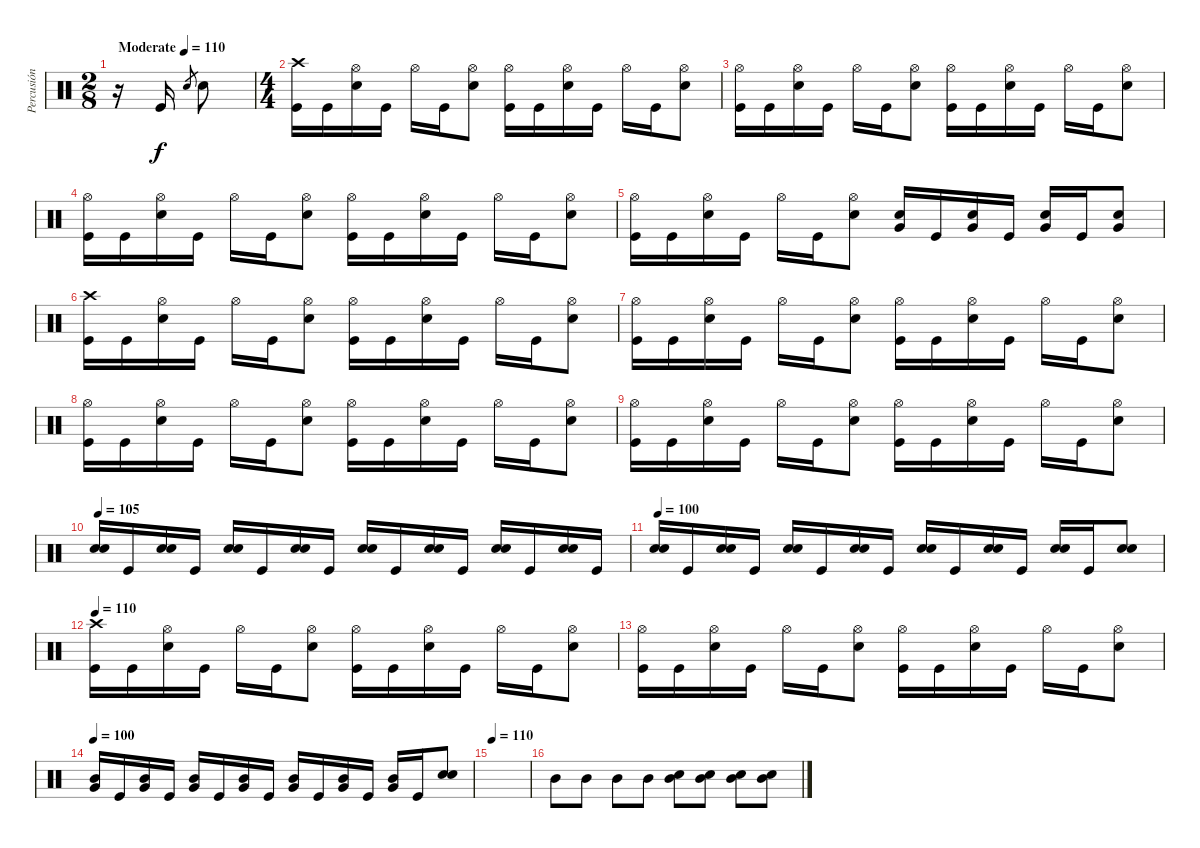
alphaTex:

\track ("Percusión" "Percusión") {instrument percussion}
\staff {score}
\articulation defaults
\ts (2 8)
\tempo (110 "Moderate")
\clef neutral
\ks c
r.16{dy f} "Kick (hit)".16 "Snare (hit) 2".8{gr} "Snare (hit) 2".8 |
\ts (4 4)
("Crash high (hit)" "Kick (hit)").16 "Kick (hit)".16 ("Hi-Hat (open)" "Snare (hit) 2").16 "Kick (hit)".16 "Hi-Hat (open)".16 "Kick (hit)".16 ("Hi-Hat (open)" "Snare (hit) 2").8 ("Hi-Hat (open)" "Kick (hit)").16 "Kick (hit)".16 ("Hi-Hat (open)" "Snare (hit) 2").16 "Kick (hit)".16 "Hi-Hat (open)".16 "Kick (hit)".16 ("Hi-Hat (open)" "Snare (hit) 2").8 |
("Hi-Hat (open)" "Kick (hit)").16 "Kick (hit)".16 ("Hi-Hat (open)" "Snare (hit) 2").16 "Kick (hit)".16 "Hi-Hat (open)".16 "Kick (hit)".16 ("Hi-Hat (open)" "Snare (hit) 2").8 ("Hi-Hat (open)" "Kick (hit)").16 "Kick (hit)".16 ("Hi-Hat (open)" "Snare (hit) 2").16 "Kick (hit)".16 "Hi-Hat (open)".16 "Kick (hit)".16 ("Hi-Hat (open)" "Snare (hit) 2").8 |
("Hi-Hat (open)" "Kick (hit)").16 "Kick (hit)".16 ("Hi-Hat (open)" "Snare (hit) 2").16 "Kick (hit)".16 "Hi-Hat (open)".16 "Kick (hit)".16 ("Hi-Hat (open)" "Snare (hit) 2").8 ("Hi-Hat (open)" "Kick (hit)").16 "Kick (hit)".16 ("Hi-Hat (open)" "Snare (hit) 2").16 "Kick (hit)".16 "Hi-Hat (open)".16 "Kick (hit)".16 ("Hi-Hat (open)" "Snare (hit) 2").8 |
("Hi-Hat (open)" "Kick (hit)").16 "Kick (hit)".16 ("Hi-Hat (open)" "Snare (hit) 2").16 "Kick (hit)".16 "Hi-Hat (open)".16 "Kick (hit)".16 ("Hi-Hat (open)" "Snare (hit) 2").8 ("Very Low Tom (hit)" "Snare (hit) 2").16 "Kick (hit)".16 ("Very Low Tom (hit)" "Snare (hit) 2").16 "Kick (hit)".16 ("Very Low Tom (hit)" "Snare (hit) 2").16 "Kick (hit)".16 ("Very Low Tom (hit)" "Snare (hit) 2").8 |
("Crash high (hit)" "Kick (hit)").16 "Kick (hit)".16 ("Hi-Hat (open)" "Snare (hit) 2").16 "Kick (hit)".16 "Hi-Hat (open)".16 "Kick (hit)".16 ("Hi-Hat (open)" "Snare (hit) 2").8 ("Hi-Hat (open)" "Kick (hit)").16 "Kick (hit)".16 ("Hi-Hat (open)" "Snare (hit) 2").16 "Kick (hit)".16 "Hi-Hat (open)".16 "Kick (hit)".16 ("Hi-Hat (open)" "Snare (hit) 2").8 |
("Hi-Hat (open)" "Kick (hit)").16 "Kick (hit)".16 ("Hi-Hat (open)" "Snare (hit) 2").16 "Kick (hit)".16 "Hi-Hat (open)".16 "Kick (hit)".16 ("Hi-Hat (open)" "Snare (hit) 2").8 ("Hi-Hat (open)" "Kick (hit)").16 "Kick (hit)".16 ("Hi-Hat (open)" "Snare (hit) 2").16 "Kick (hit)".16 "Hi-Hat (open)".16 "Kick (hit)".16 ("Hi-Hat (open)" "Snare (hit) 2").8 |
("Hi-Hat (open)" "Kick (hit)").16 "Kick (hit)".16 ("Hi-Hat (open)" "Snare (hit) 2").16 "Kick (hit)".16 "Hi-Hat (open)".16 "Kick (hit)".16 ("Hi-Hat (open)" "Snare (hit) 2").8 ("Hi-Hat (open)" "Kick (hit)").16 "Kick (hit)".16 ("Hi-Hat (open)" "Snare (hit) 2").16 "Kick (hit)".16 "Hi-Hat (open)".16 "Kick (hit)".16 ("Hi-Hat (open)" "Snare (hit) 2").8 |
("Hi-Hat (open)" "Kick (hit)").16 "Kick (hit)".16 ("Hi-Hat (open)" "Snare (hit) 2").16 "Kick (hit)".16 "Hi-Hat (open)".16 "Kick (hit)".16 ("Hi-Hat (open)" "Snare (hit) 2").8 ("Hi-Hat (open)" "Kick (hit)").16 "Kick (hit)".16 ("Hi-Hat (open)" "Snare (hit) 2").16 "Kick (hit)".16 "Hi-Hat (open)".16 "Kick (hit)".16 ("Hi-Hat (open)" "Snare (hit) 2").8 |
\tempo 105
("Snare (hit) 2" "Snare (hit) 2").16 "Kick (hit)".16 ("Snare (hit) 2" "Snare (hit) 2").16 "Kick (hit)".16 ("Snare (hit) 2" "Snare (hit) 2").16 "Kick (hit)".16 ("Snare (hit) 2" "Snare (hit) 2").16 "Kick (hit)".16 ("Snare (hit) 2" "Snare (hit) 2").16 "Kick (hit)".16 ("Snare (hit) 2" "Snare (hit) 2").16 "Kick (hit)".16 ("Snare (hit) 2" "Snare (hit) 2").16 "Kick (hit)".16 ("Snare (hit) 2" "Snare (hit) 2").16 "Kick (hit)".16 |
\tempo 100
("Snare (hit) 2" "Snare (hit) 2").16 "Kick (hit)".16 ("Snare (hit) 2" "Snare (hit) 2").16 "Kick (hit)".16 ("Snare (hit) 2" "Snare (hit) 2").16 "Kick (hit)".16 ("Snare (hit) 2" "Snare (hit) 2").16 "Kick (hit)".16 ("Snare (hit) 2" "Snare (hit) 2").16 "Kick (hit)".16 ("Snare (hit) 2" "Snare (hit) 2").16 "Kick (hit)".16 ("Snare (hit) 2" "Snare (hit) 2").16 "Kick (hit)".16 ("Snare (hit) 2" "Snare (hit) 2").8 |
\tempo 110
("Crash high (hit)" "Kick (hit)").16 "Kick (hit)".16 ("Hi-Hat (open)" "Snare (hit) 2").16 "Kick (hit)".16 "Hi-Hat (open)".16 "Kick (hit)".16 ("Hi-Hat (open)" "Snare (hit) 2").8 ("Hi-Hat (open)" "Kick (hit)").16 "Kick (hit)".16 ("Hi-Hat (open)" "Snare (hit) 2").16 "Kick (hit)".16 "Hi-Hat (open)".16 "Kick (hit)".16 ("Hi-Hat (open)" "Snare (hit) 2").8 |
("Hi-Hat (open)" "Kick (hit)").16 "Kick (hit)".16 ("Hi-Hat (open)" "Snare (hit) 2").16 "Kick (hit)".16 "Hi-Hat (open)".16 "Kick (hit)".16 ("Hi-Hat (open)" "Snare (hit) 2").8 ("Hi-Hat (open)" "Kick (hit)").16 "Kick (hit)".16 ("Hi-Hat (open)" "Snare (hit) 2").16 "Kick (hit)".16 "Hi-Hat (open)".16 "Kick (hit)".16 ("Hi-Hat (open)" "Snare (hit) 2").8 |
\tempo 100
("Very Low Tom (hit)" "Mid Tom (hit)").16 "Kick (hit)".16 ("Very Low Tom (hit)" "Mid Tom (hit)").16 "Kick (hit)".16 ("Very Low Tom (hit)" "Mid Tom (hit)").16 "Kick (hit)".16 ("Very Low Tom (hit)" "Mid Tom (hit)").16 "Kick (hit)".16 ("Very Low Tom (hit)" "Mid Tom (hit)").16 "Kick (hit)".16 ("Very Low Tom (hit)" "Mid Tom (hit)").16 "Kick (hit)".16 ("Very Low Tom (hit)" "Mid Tom (hit)").16 "Kick (hit)".16 ("Snare (hit) 2" "Snare (hit) 2").8 |
\tempo 110
|
"Mid Tom (hit)".8 "Mid Tom (hit)".8 "Mid Tom (hit)".8 "Mid Tom (hit)".8 ("Mid Tom (hit)" "Snare (hit) 2").8 ("Mid Tom (hit)" "Snare (hit) 2").8 ("Mid Tom (hit)" "Snare (hit) 2").8 ("Mid Tom (hit)" "Snare (hit) 2").8
